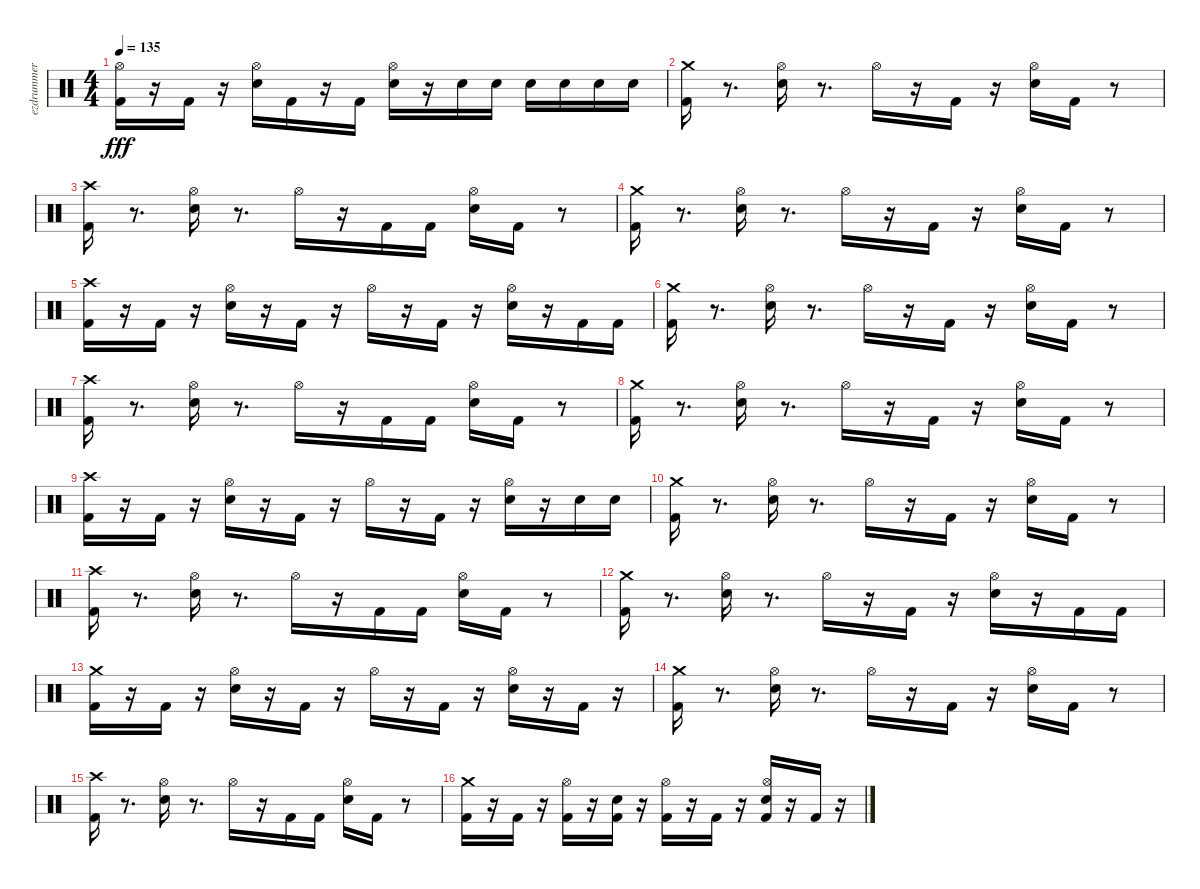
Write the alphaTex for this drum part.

\track ("ezdrummer" "ezdrummer") {instrument percussion}
\staff {score}
\articulation defaults
\ts (4 4)
\tempo 135
\clef neutral
\ks c
("Kick (hit) 2" "Hi-Hat (open)").16{dy fff} r.16 "Kick (hit) 2".16 r.16 ("Snare (hit) 2" "Hi-Hat (open)").16 "Kick (hit) 2".16 r.16 "Kick (hit) 2".16 ("Snare (hit) 2" "Hi-Hat (open)").16 r.16 "Snare (hit) 2".16 "Snare (hit) 2".16 "Snare (hit) 2".16 "Snare (hit) 2".16 "Snare (hit) 2".16 "Snare (hit) 2".16 |
("Kick (hit) 2" "Crash medium (hit)").16 r.8{d} ("Snare (hit) 2" "Hi-Hat (open)").16 r.8{d} "Hi-Hat (open)".16 r.16 "Kick (hit) 2".16 r.16 ("Snare (hit) 2" "Hi-Hat (open)").16 "Kick (hit) 2".16 r.8 |
("Kick (hit) 2" "Crash high (hit)").16 r.8{d} ("Snare (hit) 2" "Hi-Hat (open)").16 r.8{d} "Hi-Hat (open)".16 r.16 "Kick (hit) 2".16 "Kick (hit) 2".16 ("Snare (hit) 2" "Hi-Hat (open)").16 "Kick (hit) 2".16 r.8 |
("Kick (hit) 2" "Crash medium (hit)").16 r.8{d} ("Snare (hit) 2" "Hi-Hat (open)").16 r.8{d} "Hi-Hat (open)".16 r.16 "Kick (hit) 2".16 r.16 ("Snare (hit) 2" "Hi-Hat (open)").16 "Kick (hit) 2".16 r.8 |
("Kick (hit) 2" "Crash high (hit)").16 r.16 "Kick (hit) 2".16 r.16 ("Snare (hit) 2" "Hi-Hat (open)").16 r.16 "Kick (hit) 2".16 r.16 "Hi-Hat (open)".16 r.16 "Kick (hit) 2".16 r.16 ("Snare (hit) 2" "Hi-Hat (open)").16 r.16 "Kick (hit) 2".16 "Kick (hit) 2".16 |
("Kick (hit) 2" "Crash medium (hit)").16 r.8{d} ("Snare (hit) 2" "Hi-Hat (open)").16 r.8{d} "Hi-Hat (open)".16 r.16 "Kick (hit) 2".16 r.16 ("Snare (hit) 2" "Hi-Hat (open)").16 "Kick (hit) 2".16 r.8 |
("Kick (hit) 2" "Crash high (hit)").16 r.8{d} ("Snare (hit) 2" "Hi-Hat (open)").16 r.8{d} "Hi-Hat (open)".16 r.16 "Kick (hit) 2".16 "Kick (hit) 2".16 ("Snare (hit) 2" "Hi-Hat (open)").16 "Kick (hit) 2".16 r.8 |
("Kick (hit) 2" "Crash medium (hit)").16 r.8{d} ("Snare (hit) 2" "Hi-Hat (open)").16 r.8{d} "Hi-Hat (open)".16 r.16 "Kick (hit) 2".16 r.16 ("Snare (hit) 2" "Hi-Hat (open)").16 "Kick (hit) 2".16 r.8 |
("Kick (hit) 2" "Crash high (hit)").16 r.16 "Kick (hit) 2".16 r.16 ("Snare (hit) 2" "Hi-Hat (open)").16 r.16 "Kick (hit) 2".16 r.16 "Hi-Hat (open)".16 r.16 "Kick (hit) 2".16 r.16 ("Snare (hit) 2" "Hi-Hat (open)").16 r.16 "Snare (hit) 2".16 "Snare (hit) 2".16 |
("Kick (hit) 2" "Crash medium (hit)").16 r.8{d} ("Snare (hit) 2" "Hi-Hat (open)").16 r.8{d} "Hi-Hat (open)".16 r.16 "Kick (hit) 2".16 r.16 ("Snare (hit) 2" "Hi-Hat (open)").16 "Kick (hit) 2".16 r.8 |
("Kick (hit) 2" "Crash high (hit)").16 r.8{d} ("Snare (hit) 2" "Hi-Hat (open)").16 r.8{d} "Hi-Hat (open)".16 r.16 "Kick (hit) 2".16 "Kick (hit) 2".16 ("Snare (hit) 2" "Hi-Hat (open)").16 "Kick (hit) 2".16 r.8 |
("Kick (hit) 2" "Crash medium (hit)").16 r.8{d} ("Snare (hit) 2" "Hi-Hat (open)").16 r.8{d} "Hi-Hat (open)".16 r.16 "Kick (hit) 2".16 r.16 ("Snare (hit) 2" "Hi-Hat (open)").16 r.16 "Kick (hit) 2".16 "Kick (hit) 2".16 |
("Kick (hit) 2" "Crash medium (hit)").16 r.16 "Kick (hit) 2".16 r.16 ("Snare (hit) 2" "Hi-Hat (open)").16 r.16 "Kick (hit) 2".16 r.16 "Hi-Hat (open)".16 r.16 "Kick (hit) 2".16 r.16 ("Snare (hit) 2" "Hi-Hat (open)").16 r.16 "Kick (hit) 2".16 r.16 |
("Kick (hit) 2" "Crash medium (hit)").16 r.8{d} ("Snare (hit) 2" "Hi-Hat (open)").16 r.8{d} "Hi-Hat (open)".16 r.16 "Kick (hit) 2".16 r.16 ("Snare (hit) 2" "Hi-Hat (open)").16 "Kick (hit) 2".16 r.8 |
("Kick (hit) 2" "Crash high (hit)").16 r.8{d} ("Snare (hit) 2" "Hi-Hat (open)").16 r.8{d} "Hi-Hat (open)".16 r.16 "Kick (hit) 2".16 "Kick (hit) 2".16 ("Snare (hit) 2" "Hi-Hat (open)").16 "Kick (hit) 2".16 r.8 |
("Kick (hit) 2" "Crash medium (hit)").16 r.16 "Kick (hit) 2".16 r.16 ("Kick (hit) 2" "Hi-Hat (open)").16 r.16 ("Kick (hit) 2" "Snare (hit) 2").16 r.16 ("Kick (hit) 2" "Hi-Hat (open)").16 r.16 "Kick (hit) 2".16 r.16 ("Kick (hit) 2" "Snare (hit) 2" "Hi-Hat (open)").16 r.16 "Kick (hit) 2".16 r.16
